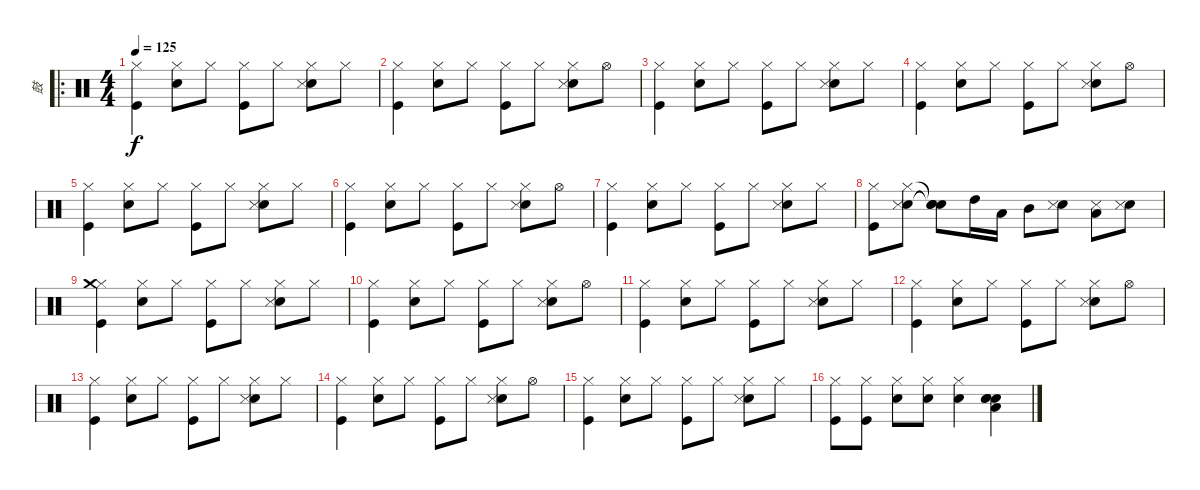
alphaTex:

\track ("鼓" "鼓") {instrument percussion}
\staff {score}
\articulation defaults
\ro
\ts (4 4)
\tempo 125
\clef neutral
\ks c
("Kick (hit)" "Hi-Hat (closed)").4{dy f} ("Hi-Hat (closed)" "Electric Snare (hit)").8 "Hi-Hat (closed)".8 ("Kick (hit)" "Hi-Hat (closed)").8 "Hi-Hat (closed)".8 ("Hi-Hat (closed)" "Electric Snare (hit)" "Snare (side stick) 3").8 "Hi-Hat (closed)".8 |
("Kick (hit)" "Hi-Hat (closed)").4 ("Hi-Hat (closed)" "Electric Snare (hit)").8 "Hi-Hat (closed)".8 ("Kick (hit)" "Hi-Hat (closed)").8 "Hi-Hat (closed)".8 ("Hi-Hat (closed)" "Electric Snare (hit)" "Snare (side stick) 3").8 "Hi-Hat (open)".8 |
("Kick (hit)" "Hi-Hat (closed)").4 ("Hi-Hat (closed)" "Electric Snare (hit)").8 "Hi-Hat (closed)".8 ("Kick (hit)" "Hi-Hat (closed)").8 "Hi-Hat (closed)".8 ("Hi-Hat (closed)" "Electric Snare (hit)" "Snare (side stick) 3").8 "Hi-Hat (closed)".8 |
("Kick (hit)" "Hi-Hat (closed)").4 ("Hi-Hat (closed)" "Electric Snare (hit)").8 "Hi-Hat (closed)".8 ("Kick (hit)" "Hi-Hat (closed)").8 "Hi-Hat (closed)".8 ("Hi-Hat (closed)" "Electric Snare (hit)" "Snare (side stick) 3").8 "Hi-Hat (open)".8 |
("Kick (hit)" "Hi-Hat (closed)").4 ("Hi-Hat (closed)" "Electric Snare (hit)").8 "Hi-Hat (closed)".8 ("Kick (hit)" "Hi-Hat (closed)").8 "Hi-Hat (closed)".8 ("Hi-Hat (closed)" "Electric Snare (hit)" "Snare (side stick) 3").8 "Hi-Hat (closed)".8 |
("Kick (hit)" "Hi-Hat (closed)").4 ("Hi-Hat (closed)" "Electric Snare (hit)").8 "Hi-Hat (closed)".8 ("Kick (hit)" "Hi-Hat (closed)").8 "Hi-Hat (closed)".8 ("Hi-Hat (closed)" "Electric Snare (hit)" "Snare (side stick) 3").8 "Hi-Hat (open)".8 |
("Kick (hit)" "Hi-Hat (closed)").4 ("Hi-Hat (closed)" "Electric Snare (hit)").8 "Hi-Hat (closed)".8 ("Hi-Hat (closed)" "Kick (hit)").8 "Hi-Hat (closed)".8 ("Hi-Hat (closed)" "Electric Snare (hit)" "Snare (side stick) 3").8 "Hi-Hat (closed)".8 |
("Kick (hit)" "Hi-Hat (closed)").8 ("Hi-Hat (closed)" "Electric Snare (hit)" "Snare (side stick) 3").8 ("Snare (hit)"{t} "Snare (hit)"{t} "Snare (hit)"{t}).8 "High Tom (hit)".16 "Low Tom (hit)".16 "Mid Tom (hit)".8 ("Electric Snare (hit)" "Snare (side stick) 3").8 ("Low Floor Tom (hit)" "Snare (side stick) 3").8 ("Electric Snare (hit)" "Snare (side stick) 3").8 |
("Kick (hit)" "Hi-Hat (closed)" "Crash medium (hit)").4 ("Hi-Hat (closed)" "Electric Snare (hit)").8 "Hi-Hat (closed)".8 ("Kick (hit)" "Hi-Hat (closed)").8 "Hi-Hat (closed)".8 ("Hi-Hat (closed)" "Electric Snare (hit)" "Snare (side stick) 3").8 "Hi-Hat (closed)".8 |
("Kick (hit)" "Hi-Hat (closed)").4 ("Hi-Hat (closed)" "Electric Snare (hit)").8 "Hi-Hat (closed)".8 ("Kick (hit)" "Hi-Hat (closed)").8 "Hi-Hat (closed)".8 ("Hi-Hat (closed)" "Electric Snare (hit)" "Snare (side stick) 3").8 "Hi-Hat (open)".8 |
("Kick (hit)" "Hi-Hat (closed)").4 ("Hi-Hat (closed)" "Electric Snare (hit)").8 "Hi-Hat (closed)".8 ("Kick (hit)" "Hi-Hat (closed)").8 "Hi-Hat (closed)".8 ("Hi-Hat (closed)" "Electric Snare (hit)" "Snare (side stick) 3").8 "Hi-Hat (closed)".8 |
("Kick (hit)" "Hi-Hat (closed)").4 ("Hi-Hat (closed)" "Electric Snare (hit)").8 "Hi-Hat (closed)".8 ("Kick (hit)" "Hi-Hat (closed)").8 "Hi-Hat (closed)".8 ("Hi-Hat (closed)" "Electric Snare (hit)" "Snare (side stick) 3").8 "Hi-Hat (open)".8 |
("Kick (hit)" "Hi-Hat (closed)").4 ("Hi-Hat (closed)" "Electric Snare (hit)").8 "Hi-Hat (closed)".8 ("Kick (hit)" "Hi-Hat (closed)").8 "Hi-Hat (closed)".8 ("Hi-Hat (closed)" "Electric Snare (hit)" "Snare (side stick) 3").8 "Hi-Hat (closed)".8 |
("Kick (hit)" "Hi-Hat (closed)").4 ("Hi-Hat (closed)" "Electric Snare (hit)").8 "Hi-Hat (closed)".8 ("Kick (hit)" "Hi-Hat (closed)").8 "Hi-Hat (closed)".8 ("Hi-Hat (closed)" "Electric Snare (hit)" "Snare (side stick) 3").8 "Hi-Hat (open)".8 |
("Kick (hit)" "Hi-Hat (closed)").4 ("Hi-Hat (closed)" "Electric Snare (hit)").8 "Hi-Hat (closed)".8 ("Kick (hit)" "Hi-Hat (closed)").8 "Hi-Hat (closed)".8 ("Hi-Hat (closed)" "Electric Snare (hit)" "Snare (side stick) 3").8 "Hi-Hat (closed)".8 |
("Kick (hit)" "Hi-Hat (closed)").8 ("Kick (hit)" "Hi-Hat (closed)").8 ("Hi-Hat (closed)" "Electric Snare (hit)").8 ("Hi-Hat (closed)" "Electric Snare (hit)").8 ("Hi-Hat (closed)" "Electric Snare (hit)").4 ("Electric Snare (hit)" "Low Floor Tom (hit)" "Electric Snare (hit)" "Snare (hit) 2").4
